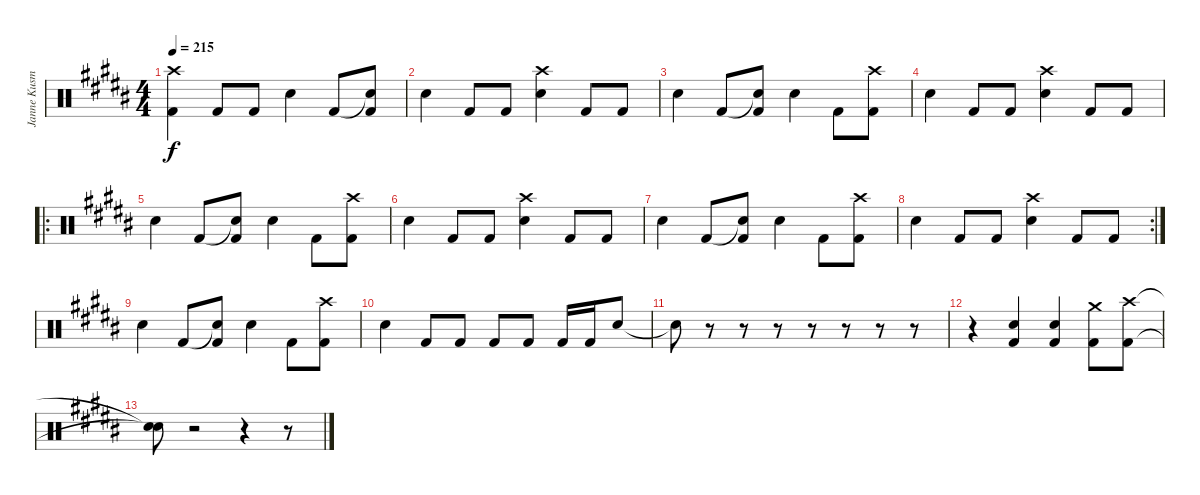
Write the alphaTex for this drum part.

\track ("Janne Kusmin" "Janne Kusm") {instrument percussion}
\staff {score}
\articulation defaults
\ts (4 4)
\tempo 215
\clef neutral
\ks g#minor
("Crash high (hit)" "Kick (hit) 2").4{dy f} "Kick (hit) 2".8 "Kick (hit) 2".8 "Electric Snare (hit)".4 "Kick (hit) 2".8 ("Snare (hit)"{t} "Kick (hit) 2").8 |
"Electric Snare (hit)".4 "Kick (hit) 2".8 "Kick (hit) 2".8 ("Crash high (hit)" "Electric Snare (hit)").4 "Kick (hit) 2".8 "Kick (hit) 2".8 |
"Electric Snare (hit)".4 "Kick (hit) 2".8 ("Snare (hit)"{t} "Kick (hit) 2").8 "Electric Snare (hit)".4 "Kick (hit) 2".8 ("Crash high (hit)" "Kick (hit) 2").8 |
"Electric Snare (hit)".4 "Kick (hit) 2".8 "Kick (hit) 2".8 ("Crash high (hit)" "Electric Snare (hit)").4 "Kick (hit) 2".8 "Kick (hit) 2".8 |
\ro "Electric Snare (hit)".4 "Kick (hit) 2".8
("Snare (hit)"{t} "Kick (hit) 2").8 "Electric Snare (hit)".4 "Kick (hit) 2".8 ("Crash high (hit)" "Kick (hit) 2").8 |
"Electric Snare (hit)".4 "Kick (hit) 2".8 "Kick (hit) 2".8 ("Crash high (hit)" "Electric Snare (hit)").4 "Kick (hit) 2".8 "Kick (hit) 2".8 |
"Electric Snare (hit)".4 "Kick (hit) 2".8 ("Snare (hit)"{t} "Kick (hit) 2").8 "Electric Snare (hit)".4 "Kick (hit) 2".8 ("Crash high (hit)" "Kick (hit) 2").8 |
\rc 2 "Electric Snare (hit)".4 "Kick (hit) 2".8 "Kick (hit) 2".8
("Crash high (hit)" "Electric Snare (hit)").4 "Kick (hit) 2".8 "Kick (hit) 2".8 |
"Electric Snare (hit)".4 "Kick (hit) 2".8 ("Snare (hit)"{t} "Kick (hit) 2").8 "Electric Snare (hit)".4 "Kick (hit) 2".8 ("Crash high (hit)" "Kick (hit) 2").8 |
"Electric Snare (hit)".4 "Kick (hit) 2".8 "Kick (hit) 2".8 "Kick (hit) 2".8 "Kick (hit) 2".8 "Kick (hit) 2".16 "Kick (hit) 2".16 "Electric Snare (hit)".8 |
"Snare (hit)"{t}.8 r.8 r.8 r.8 r.8 r.8 r.8 r.8 |
r.4 ("Electric Snare (hit)" "Kick (hit) 2").4 ("Electric Snare (hit)" "Kick (hit) 2").4 ("Crash medium (hit)" "Kick (hit) 2").8 ("Crash high (hit)" "Kick (hit) 2").8 |
("Snare (hit)"{t} "Snare (hit)"{t}).8 r.2 r.4 r.8
